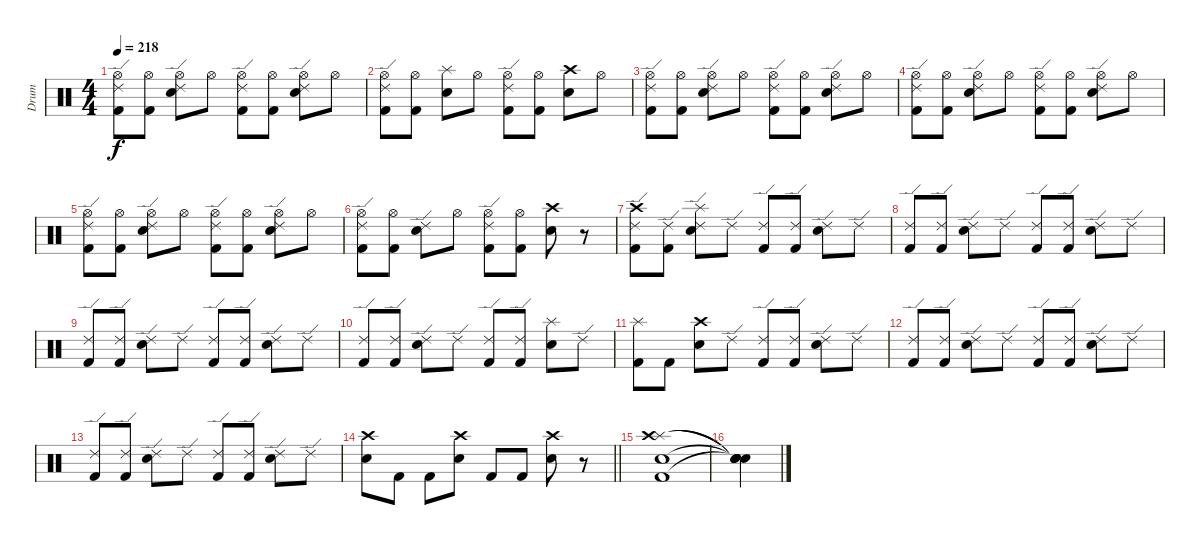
\track ("Drum" "Drum") {instrument percussion}
\staff {score}
\articulation defaults
\ts (4 4)
\tempo 218
\clef neutral
\ks c
("Ride (edge) 2" "Kick (hit) 2" "Hi-Hat (open)").8{dy f} ("Kick (hit) 2" "Hi-Hat (open)").8 ("Ride (edge) 2" "Snare (hit) 2" "Hi-Hat (open)").8 "Hi-Hat (open)".8 ("Ride (edge) 2" "Kick (hit) 2" "Hi-Hat (open)").8 ("Kick (hit) 2" "Hi-Hat (open)").8 ("Ride (edge) 2" "Snare (hit) 2" "Hi-Hat (open)").8 "Hi-Hat (open)".8 |
("Ride (edge) 2" "Kick (hit) 2" "Hi-Hat (open)").8 ("Kick (hit) 2" "Hi-Hat (open)").8 ("Snare (hit) 2" "Splash (hit)").8 "Hi-Hat (open)".8 ("Ride (edge) 2" "Kick (hit) 2" "Hi-Hat (open)").8 ("Kick (hit) 2" "Hi-Hat (open)").8 ("Snare (hit) 2" "Crash high (hit)").8 "Hi-Hat (open)".8 |
("Ride (edge) 2" "Kick (hit) 2" "Hi-Hat (open)").8 ("Kick (hit) 2" "Hi-Hat (open)").8 ("Ride (edge) 2" "Snare (hit) 2" "Hi-Hat (open)").8 "Hi-Hat (open)".8 ("Ride (edge) 2" "Kick (hit) 2" "Hi-Hat (open)").8 ("Kick (hit) 2" "Hi-Hat (open)").8 ("Ride (edge) 2" "Snare (hit) 2" "Hi-Hat (open)").8 "Hi-Hat (open)".8 |
("Ride (edge) 2" "Kick (hit) 2" "Hi-Hat (open)").8 ("Kick (hit) 2" "Hi-Hat (open)").8 ("Ride (edge) 2" "Snare (hit) 2" "Hi-Hat (open)").8 "Hi-Hat (open)".8 ("Ride (edge) 2" "Kick (hit) 2" "Hi-Hat (open)").8 ("Kick (hit) 2" "Hi-Hat (open)").8 ("Ride (edge) 2" "Snare (hit) 2" "Hi-Hat (open)").8 "Hi-Hat (open)".8 |
("Ride (edge) 2" "Kick (hit) 2" "Hi-Hat (open)").8 ("Kick (hit) 2" "Hi-Hat (open)").8 ("Ride (edge) 2" "Snare (hit) 2" "Hi-Hat (open)").8 "Hi-Hat (open)".8 ("Ride (edge) 2" "Kick (hit) 2" "Hi-Hat (open)").8 ("Kick (hit) 2" "Hi-Hat (open)").8 ("Ride (edge) 2" "Snare (hit) 2" "Hi-Hat (open)").8 "Hi-Hat (open)".8 |
("Ride (edge) 2" "Kick (hit) 2" "Hi-Hat (open)").8 ("Kick (hit) 2" "Hi-Hat (open)").8 ("Snare (hit) 2" "Ride (edge) 2").8 "Hi-Hat (open)".8 ("Ride (edge) 2" "Kick (hit) 2" "Hi-Hat (open)").8 ("Kick (hit) 2" "Hi-Hat (open)").8 ("Snare (hit) 2" "Crash high (hit)").8 r.8 |
("Kick (hit) 2" "Ride (edge) 2" "Crash high (hit)").8 ("Kick (hit) 2" "Ride (edge) 2").8 ("Snare (hit) 2" "Ride (edge) 2" "Splash (hit)").8 "Ride (edge) 2".8 ("Kick (hit) 2" "Ride (edge) 2").8 ("Kick (hit) 2" "Ride (edge) 2").8 ("Snare (hit) 2" "Ride (edge) 2").8 "Ride (edge) 2".8 |
("Kick (hit) 2" "Ride (edge) 2").8 ("Kick (hit) 2" "Ride (edge) 2").8 ("Snare (hit) 2" "Ride (edge) 2").8 "Ride (edge) 2".8 ("Kick (hit) 2" "Ride (edge) 2").8 ("Kick (hit) 2" "Ride (edge) 2").8 ("Snare (hit) 2" "Ride (edge) 2").8 "Ride (edge) 2".8 |
("Kick (hit) 2" "Ride (edge) 2").8 ("Kick (hit) 2" "Ride (edge) 2").8 ("Snare (hit) 2" "Ride (edge) 2").8 "Ride (edge) 2".8 ("Kick (hit) 2" "Ride (edge) 2").8 ("Kick (hit) 2" "Ride (edge) 2").8 ("Snare (hit) 2" "Ride (edge) 2").8 "Ride (edge) 2".8 |
("Kick (hit) 2" "Ride (edge) 2").8 ("Kick (hit) 2" "Ride (edge) 2").8 ("Snare (hit) 2" "Ride (edge) 2").8 "Ride (edge) 2".8 ("Kick (hit) 2" "Ride (edge) 2").8 ("Kick (hit) 2" "Ride (edge) 2").8 ("Snare (hit) 2" "Splash (hit)").8 "Ride (edge) 2".8 |
("Kick (hit) 2" "Splash (hit)").8 "Kick (hit) 2".8 ("Snare (hit) 2" "Crash high (hit)").8 "Ride (edge) 2".8 ("Kick (hit) 2" "Ride (edge) 2").8 ("Kick (hit) 2" "Ride (edge) 2").8 ("Snare (hit) 2" "Ride (edge) 2").8 "Ride (edge) 2".8 |
("Kick (hit) 2" "Ride (edge) 2").8 ("Kick (hit) 2" "Ride (edge) 2").8 ("Snare (hit) 2" "Ride (edge) 2").8 "Ride (edge) 2".8 ("Kick (hit) 2" "Ride (edge) 2").8 ("Kick (hit) 2" "Ride (edge) 2").8 ("Snare (hit) 2" "Ride (edge) 2").8 "Ride (edge) 2".8 |
("Kick (hit) 2" "Ride (edge) 2").8 ("Kick (hit) 2" "Ride (edge) 2").8 ("Snare (hit) 2" "Ride (edge) 2").8 "Ride (edge) 2".8 ("Kick (hit) 2" "Ride (edge) 2").8 ("Kick (hit) 2" "Ride (edge) 2").8 ("Snare (hit) 2" "Ride (edge) 2").8 "Ride (edge) 2".8 |
\barLineRight lightlight
("Snare (hit) 2" "Crash high (hit)").8 "Kick (hit) 2".8 "Kick (hit) 2".8 ("Snare (hit) 2" "Crash high (hit)").8 "Kick (hit) 2".8 "Kick (hit) 2".8 ("Snare (hit) 2" "Crash high (hit)").8 r.8 |
("Splash (hit)" "Snare (hit) 2" "Kick (hit) 2" "Crash high (hit)").1 |
("Snare (hit)"{t} "Snare (hit)"{t} "Snare (hit)"{t} "Snare (hit)"{t}).4
